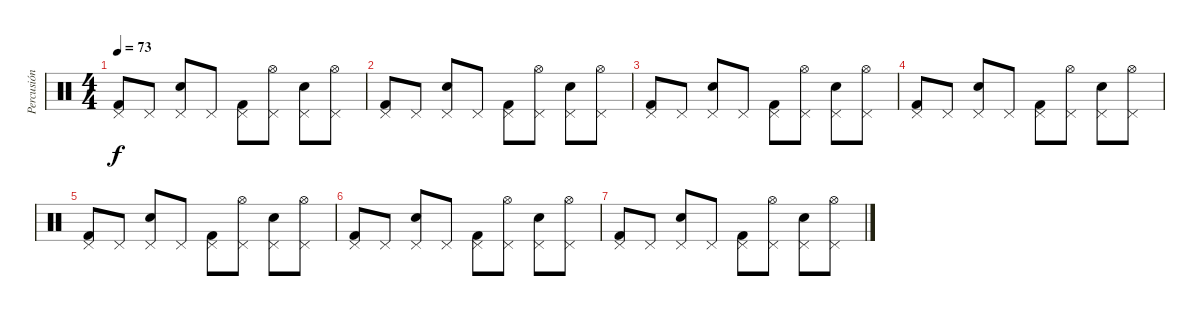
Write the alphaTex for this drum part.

\track ("Percusión" "Percusión") {instrument percussion}
\staff {score}
\articulation defaults
\ts (4 4)
\tempo 73
\clef neutral
\ks c
("Pedal Hi-Hat (hit)" "Kick (hit) 2").8{dy f} "Pedal Hi-Hat (hit)".8 ("Pedal Hi-Hat (hit)" "Snare (hit) 2").8 "Pedal Hi-Hat (hit)".8 ("Pedal Hi-Hat (hit)" "Kick (hit) 2").8 ("Pedal Hi-Hat (hit)" "Hi-Hat (open)").8 ("Pedal Hi-Hat (hit)" "Snare (hit) 2").8 ("Pedal Hi-Hat (hit)" "Hi-Hat (open)").8 |
("Pedal Hi-Hat (hit)" "Kick (hit) 2").8 "Pedal Hi-Hat (hit)".8 ("Pedal Hi-Hat (hit)" "Snare (hit) 2").8 "Pedal Hi-Hat (hit)".8 ("Pedal Hi-Hat (hit)" "Kick (hit) 2").8 ("Pedal Hi-Hat (hit)" "Hi-Hat (open)").8 ("Pedal Hi-Hat (hit)" "Snare (hit) 2").8 ("Pedal Hi-Hat (hit)" "Hi-Hat (open)").8 |
("Pedal Hi-Hat (hit)" "Kick (hit) 2").8 "Pedal Hi-Hat (hit)".8 ("Pedal Hi-Hat (hit)" "Snare (hit) 2").8 "Pedal Hi-Hat (hit)".8 ("Pedal Hi-Hat (hit)" "Kick (hit) 2").8 ("Pedal Hi-Hat (hit)" "Hi-Hat (open)").8 ("Pedal Hi-Hat (hit)" "Snare (hit) 2").8 ("Pedal Hi-Hat (hit)" "Hi-Hat (open)").8 |
("Pedal Hi-Hat (hit)" "Kick (hit) 2").8 "Pedal Hi-Hat (hit)".8 ("Pedal Hi-Hat (hit)" "Snare (hit) 2").8 "Pedal Hi-Hat (hit)".8 ("Pedal Hi-Hat (hit)" "Kick (hit) 2").8 ("Pedal Hi-Hat (hit)" "Hi-Hat (open)").8 ("Pedal Hi-Hat (hit)" "Snare (hit) 2").8 ("Pedal Hi-Hat (hit)" "Hi-Hat (open)").8 |
("Pedal Hi-Hat (hit)" "Kick (hit) 2").8 "Pedal Hi-Hat (hit)".8 ("Pedal Hi-Hat (hit)" "Snare (hit) 2").8 "Pedal Hi-Hat (hit)".8 ("Pedal Hi-Hat (hit)" "Kick (hit) 2").8 ("Pedal Hi-Hat (hit)" "Hi-Hat (open)").8 ("Pedal Hi-Hat (hit)" "Snare (hit) 2").8 ("Pedal Hi-Hat (hit)" "Hi-Hat (open)").8 |
("Pedal Hi-Hat (hit)" "Kick (hit) 2").8 "Pedal Hi-Hat (hit)".8 ("Pedal Hi-Hat (hit)" "Snare (hit) 2").8 "Pedal Hi-Hat (hit)".8 ("Pedal Hi-Hat (hit)" "Kick (hit) 2").8 ("Pedal Hi-Hat (hit)" "Hi-Hat (open)").8 ("Pedal Hi-Hat (hit)" "Snare (hit) 2").8 ("Pedal Hi-Hat (hit)" "Hi-Hat (open)").8 |
("Pedal Hi-Hat (hit)" "Kick (hit) 2").8 "Pedal Hi-Hat (hit)".8 ("Pedal Hi-Hat (hit)" "Snare (hit) 2").8 "Pedal Hi-Hat (hit)".8 ("Pedal Hi-Hat (hit)" "Kick (hit) 2").8 ("Pedal Hi-Hat (hit)" "Hi-Hat (open)").8 ("Pedal Hi-Hat (hit)" "Snare (hit) 2").8 ("Pedal Hi-Hat (hit)" "Hi-Hat (open)").8
